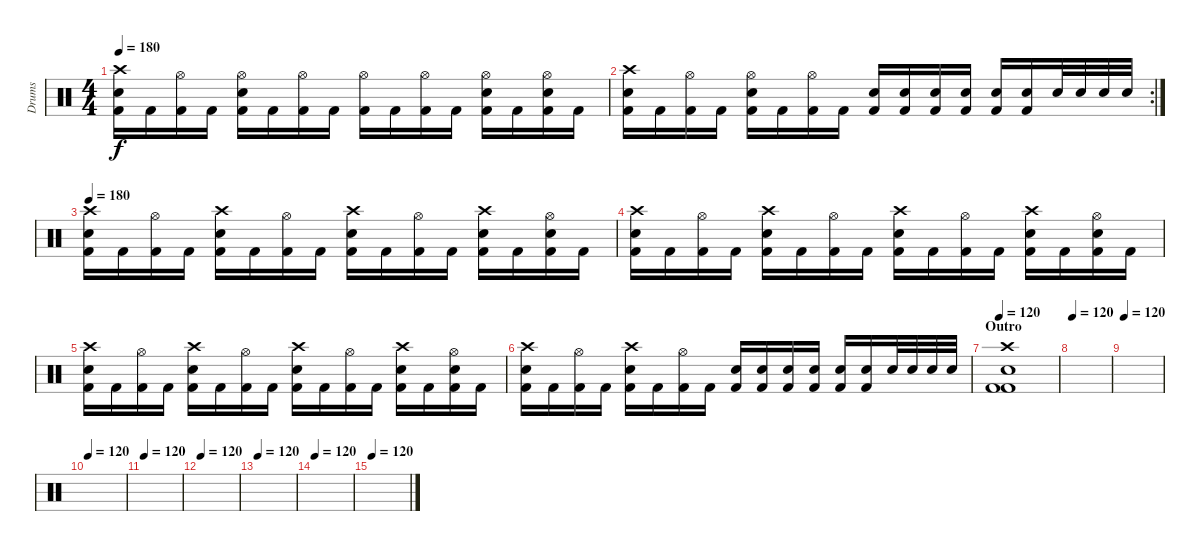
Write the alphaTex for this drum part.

\track ("Drums" "Drums") {instrument percussion}
\staff {score}
\articulation defaults
\ts (4 4)
\tempo 180
\clef neutral
\ks c
("Crash high (hit)" "Snare (hit) 2" "Kick (hit) 2").16{dy f} "Kick (hit) 2".16 ("Hi-Hat (open)" "Kick (hit) 2").16 "Kick (hit) 2".16 ("Hi-Hat (open)" "Snare (hit) 2" "Kick (hit) 2").16 "Kick (hit) 2".16 ("Hi-Hat (open)" "Kick (hit) 2").16 "Kick (hit) 2".16 ("Hi-Hat (open)" "Kick (hit) 2").16 "Kick (hit) 2".16 ("Hi-Hat (open)" "Kick (hit) 2").16 "Kick (hit) 2".16 ("Hi-Hat (open)" "Snare (hit) 2" "Kick (hit) 2").16 "Kick (hit) 2".16 ("Hi-Hat (open)" "Snare (hit) 2" "Kick (hit) 2").16 "Kick (hit) 2".16 |
\rc 2
("Crash high (hit)" "Snare (hit) 2" "Kick (hit) 2").16 "Kick (hit) 2".16 ("Hi-Hat (open)" "Kick (hit) 2").16 "Kick (hit) 2".16 ("Hi-Hat (open)" "Snare (hit) 2" "Kick (hit) 2").16 "Kick (hit) 2".16 ("Hi-Hat (open)" "Kick (hit) 2").16 "Kick (hit) 2".16 ("Snare (hit) 2" "Kick (hit) 2").16 ("Snare (hit) 2" "Kick (hit) 2").16 ("Snare (hit) 2" "Kick (hit) 2").16 ("Snare (hit) 2" "Kick (hit) 2").16 ("Snare (hit) 2" "Kick (hit) 2").16 ("Snare (hit) 2" "Kick (hit) 2").16 "Snare (hit) 2".32 "Snare (hit) 2".32 "Snare (hit) 2".32 "Snare (hit) 2".32 |
\tempo 180
("Crash high (hit)" "Snare (hit) 2" "Kick (hit) 2").16 "Kick (hit) 2".16 ("Hi-Hat (open)" "Kick (hit) 2").16 "Kick (hit) 2".16 ("Crash high (hit)" "Snare (hit) 2" "Kick (hit) 2").16 "Kick (hit) 2".16 ("Hi-Hat (open)" "Kick (hit) 2").16 "Kick (hit) 2".16 ("Crash high (hit)" "Snare (hit) 2" "Kick (hit) 2").16 "Kick (hit) 2".16 ("Hi-Hat (open)" "Kick (hit) 2").16 "Kick (hit) 2".16 ("Crash high (hit)" "Snare (hit) 2" "Kick (hit) 2").16 "Kick (hit) 2".16 ("Hi-Hat (open)" "Snare (hit) 2" "Kick (hit) 2").16 "Kick (hit) 2".16 |
("Crash high (hit)" "Snare (hit) 2" "Kick (hit) 2").16 "Kick (hit) 2".16 ("Hi-Hat (open)" "Kick (hit) 2").16 "Kick (hit) 2".16 ("Crash high (hit)" "Snare (hit) 2" "Kick (hit) 2").16 "Kick (hit) 2".16 ("Hi-Hat (open)" "Kick (hit) 2").16 "Kick (hit) 2".16 ("Crash high (hit)" "Snare (hit) 2" "Kick (hit) 2").16 "Kick (hit) 2".16 ("Hi-Hat (open)" "Kick (hit) 2").16 "Kick (hit) 2".16 ("Crash high (hit)" "Snare (hit) 2" "Kick (hit) 2").16 "Kick (hit) 2".16 ("Hi-Hat (open)" "Snare (hit) 2" "Kick (hit) 2").16 "Kick (hit) 2".16 |
("Crash high (hit)" "Snare (hit) 2" "Kick (hit) 2").16 "Kick (hit) 2".16 ("Hi-Hat (open)" "Kick (hit) 2").16 "Kick (hit) 2".16 ("Crash high (hit)" "Snare (hit) 2" "Kick (hit) 2").16 "Kick (hit) 2".16 ("Hi-Hat (open)" "Kick (hit) 2").16 "Kick (hit) 2".16 ("Crash high (hit)" "Snare (hit) 2" "Kick (hit) 2").16 "Kick (hit) 2".16 ("Hi-Hat (open)" "Kick (hit) 2").16 "Kick (hit) 2".16 ("Crash high (hit)" "Snare (hit) 2" "Kick (hit) 2").16 "Kick (hit) 2".16 ("Hi-Hat (open)" "Snare (hit) 2" "Kick (hit) 2").16 "Kick (hit) 2".16 |
("Crash high (hit)" "Snare (hit) 2" "Kick (hit) 2").16 "Kick (hit) 2".16 ("Hi-Hat (open)" "Kick (hit) 2").16 "Kick (hit) 2".16 ("Crash high (hit)" "Snare (hit) 2" "Kick (hit) 2").16 "Kick (hit) 2".16 ("Hi-Hat (open)" "Kick (hit) 2").16 "Kick (hit) 2".16 ("Snare (hit) 2" "Kick (hit) 2").16 ("Snare (hit) 2" "Kick (hit) 2").16 ("Snare (hit) 2" "Kick (hit) 2").16 ("Snare (hit) 2" "Kick (hit) 2").16 ("Snare (hit) 2" "Kick (hit) 2").16 ("Snare (hit) 2" "Kick (hit) 2").16 "Snare (hit) 2".32 "Snare (hit) 2".32 "Snare (hit) 2".32 "Snare (hit) 2".32 |
\section ("" "Outro")
\tempo 120
("Crash high (hit)" "Snare (hit) 2" "Kick (hit) 2" "Kick (hit) 2").1 |
\tempo 120
|
\tempo 120
|
\tempo 120
|
\tempo 120
|
\tempo 120
|
\tempo 120
|
\tempo 120
|
\tempo 120
